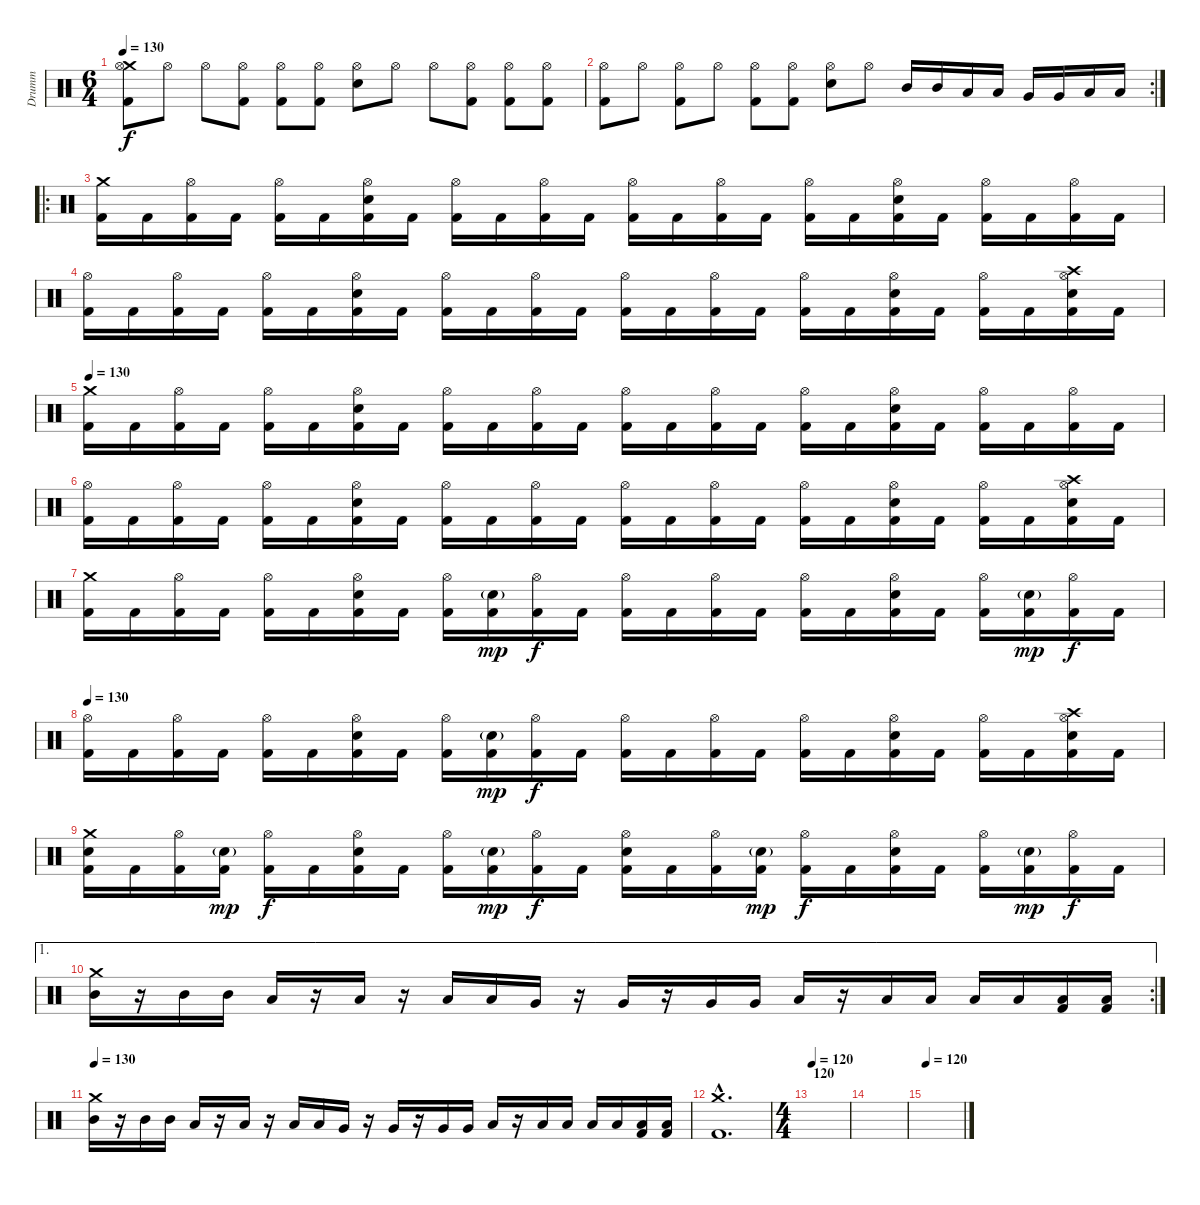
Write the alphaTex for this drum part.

\track ("Drumm" "Drumm") {instrument percussion}
\staff {score}
\articulation defaults
\ts (6 4)
\tempo 130
\clef neutral
\ks c
("Crash medium (hit)" "Hi-Hat (open)" "Kick (hit) 2").8{dy f} "Hi-Hat (open)".8 "Hi-Hat (open)".8 ("Hi-Hat (open)" "Kick (hit) 2").8 ("Hi-Hat (open)" "Kick (hit) 2").8 ("Hi-Hat (open)" "Kick (hit) 2").8 ("Hi-Hat (open)" "Electric Snare (hit)").8 "Hi-Hat (open)".8 "Hi-Hat (open)".8 ("Hi-Hat (open)" "Kick (hit) 2").8 ("Hi-Hat (open)" "Kick (hit) 2").8 ("Hi-Hat (open)" "Kick (hit) 2").8 |
\rc 2
("Hi-Hat (open)" "Kick (hit) 2").8 "Hi-Hat (open)".8 ("Hi-Hat (open)" "Kick (hit) 2").8 "Hi-Hat (open)".8 ("Hi-Hat (open)" "Kick (hit) 2").8 ("Hi-Hat (open)" "Kick (hit) 2").8 ("Hi-Hat (open)" "Electric Snare (hit)").8 "Hi-Hat (open)".8 "Mid Tom (hit)".16 "Mid Tom (hit)".16 "Low Tom (hit)".16 "Low Tom (hit)".16 "Very Low Tom (hit)".16 "Very Low Tom (hit)".16 "Low Floor Tom (hit)".16 "Low Floor Tom (hit)".16 |
\ro
("Kick (hit) 2" "Crash medium (hit)").16 "Kick (hit) 2".16 ("Kick (hit) 2" "Hi-Hat (open)").16 "Kick (hit) 2".16 ("Kick (hit) 2" "Hi-Hat (open)").16 "Kick (hit) 2".16 ("Kick (hit) 2" "Hi-Hat (open)" "Electric Snare (hit)").16 "Kick (hit) 2".16 ("Kick (hit) 2" "Hi-Hat (open)").16 "Kick (hit) 2".16 ("Kick (hit) 2" "Hi-Hat (open)").16 "Kick (hit) 2".16 ("Kick (hit) 2" "Hi-Hat (open)").16 "Kick (hit) 2".16 ("Kick (hit) 2" "Hi-Hat (open)").16 "Kick (hit) 2".16 ("Kick (hit) 2" "Hi-Hat (open)").16 "Kick (hit) 2".16 ("Kick (hit) 2" "Hi-Hat (open)" "Electric Snare (hit)").16 "Kick (hit) 2".16 ("Kick (hit) 2" "Hi-Hat (open)").16 "Kick (hit) 2".16 ("Kick (hit) 2" "Hi-Hat (open)").16 "Kick (hit) 2".16 |
("Kick (hit) 2" "Hi-Hat (open)").16 "Kick (hit) 2".16 ("Kick (hit) 2" "Hi-Hat (open)").16 "Kick (hit) 2".16 ("Kick (hit) 2" "Hi-Hat (open)").16 "Kick (hit) 2".16 ("Kick (hit) 2" "Hi-Hat (open)" "Electric Snare (hit)").16 "Kick (hit) 2".16 ("Kick (hit) 2" "Hi-Hat (open)").16 "Kick (hit) 2".16 ("Kick (hit) 2" "Hi-Hat (open)").16 "Kick (hit) 2".16 ("Kick (hit) 2" "Hi-Hat (open)").16 "Kick (hit) 2".16 ("Kick (hit) 2" "Hi-Hat (open)").16 "Kick (hit) 2".16 ("Kick (hit) 2" "Hi-Hat (open)").16 "Kick (hit) 2".16 ("Kick (hit) 2" "Hi-Hat (open)" "Electric Snare (hit)").16 "Kick (hit) 2".16 ("Kick (hit) 2" "Hi-Hat (open)").16 "Kick (hit) 2".16 ("Kick (hit) 2" "Crash high (hit)" "Hi-Hat (open)" "Electric Snare (hit)").16 "Kick (hit) 2".16 |
\tempo 130
("Kick (hit) 2" "Crash medium (hit)").16 "Kick (hit) 2".16 ("Kick (hit) 2" "Hi-Hat (open)").16 "Kick (hit) 2".16 ("Kick (hit) 2" "Hi-Hat (open)").16 "Kick (hit) 2".16 ("Kick (hit) 2" "Hi-Hat (open)" "Electric Snare (hit)").16 "Kick (hit) 2".16 ("Kick (hit) 2" "Hi-Hat (open)").16 "Kick (hit) 2".16 ("Kick (hit) 2" "Hi-Hat (open)").16 "Kick (hit) 2".16 ("Kick (hit) 2" "Hi-Hat (open)").16 "Kick (hit) 2".16 ("Kick (hit) 2" "Hi-Hat (open)").16 "Kick (hit) 2".16 ("Kick (hit) 2" "Hi-Hat (open)").16 "Kick (hit) 2".16 ("Kick (hit) 2" "Hi-Hat (open)" "Electric Snare (hit)").16 "Kick (hit) 2".16 ("Kick (hit) 2" "Hi-Hat (open)").16 "Kick (hit) 2".16 ("Kick (hit) 2" "Hi-Hat (open)").16 "Kick (hit) 2".16 |
("Kick (hit) 2" "Hi-Hat (open)").16 "Kick (hit) 2".16 ("Kick (hit) 2" "Hi-Hat (open)").16 "Kick (hit) 2".16 ("Kick (hit) 2" "Hi-Hat (open)").16 "Kick (hit) 2".16 ("Kick (hit) 2" "Hi-Hat (open)" "Electric Snare (hit)").16 "Kick (hit) 2".16 ("Kick (hit) 2" "Hi-Hat (open)").16 "Kick (hit) 2".16 ("Kick (hit) 2" "Hi-Hat (open)").16 "Kick (hit) 2".16 ("Kick (hit) 2" "Hi-Hat (open)").16 "Kick (hit) 2".16 ("Kick (hit) 2" "Hi-Hat (open)").16 "Kick (hit) 2".16 ("Kick (hit) 2" "Hi-Hat (open)").16 "Kick (hit) 2".16 ("Kick (hit) 2" "Hi-Hat (open)" "Electric Snare (hit)").16 "Kick (hit) 2".16 ("Kick (hit) 2" "Hi-Hat (open)").16 "Kick (hit) 2".16 ("Kick (hit) 2" "Crash high (hit)" "Hi-Hat (open)" "Electric Snare (hit)").16 "Kick (hit) 2".16 |
("Kick (hit) 2" "Crash medium (hit)").16 "Kick (hit) 2".16 ("Kick (hit) 2" "Hi-Hat (open)").16 "Kick (hit) 2".16 ("Kick (hit) 2" "Hi-Hat (open)").16 "Kick (hit) 2".16 ("Kick (hit) 2" "Hi-Hat (open)" "Electric Snare (hit)").16 "Kick (hit) 2".16 ("Kick (hit) 2" "Hi-Hat (open)").16 ("Kick (hit) 2" "Electric Snare (hit)"{g}).16{dy mp} ("Kick (hit) 2" "Hi-Hat (open)").16{dy f} "Kick (hit) 2".16 ("Kick (hit) 2" "Hi-Hat (open)").16 "Kick (hit) 2".16 ("Kick (hit) 2" "Hi-Hat (open)").16 "Kick (hit) 2".16 ("Kick (hit) 2" "Hi-Hat (open)").16 "Kick (hit) 2".16 ("Kick (hit) 2" "Hi-Hat (open)" "Electric Snare (hit)").16 "Kick (hit) 2".16 ("Kick (hit) 2" "Hi-Hat (open)").16 ("Kick (hit) 2" "Electric Snare (hit)"{g}).16{dy mp} ("Kick (hit) 2" "Hi-Hat (open)").16{dy f} "Kick (hit) 2".16 |
\tempo 130
("Kick (hit) 2" "Hi-Hat (open)").16 "Kick (hit) 2".16 ("Kick (hit) 2" "Hi-Hat (open)").16 "Kick (hit) 2".16 ("Kick (hit) 2" "Hi-Hat (open)").16 "Kick (hit) 2".16 ("Kick (hit) 2" "Hi-Hat (open)" "Electric Snare (hit)").16 "Kick (hit) 2".16 ("Kick (hit) 2" "Hi-Hat (open)").16 ("Kick (hit) 2" "Electric Snare (hit)"{g}).16{dy mp} ("Kick (hit) 2" "Hi-Hat (open)").16{dy f} "Kick (hit) 2".16 ("Kick (hit) 2" "Hi-Hat (open)").16 "Kick (hit) 2".16 ("Kick (hit) 2" "Hi-Hat (open)").16 "Kick (hit) 2".16 ("Kick (hit) 2" "Hi-Hat (open)").16 "Kick (hit) 2".16 ("Kick (hit) 2" "Hi-Hat (open)" "Electric Snare (hit)").16 "Kick (hit) 2".16 ("Kick (hit) 2" "Hi-Hat (open)").16 "Kick (hit) 2".16 ("Kick (hit) 2" "Crash high (hit)" "Hi-Hat (open)" "Electric Snare (hit)").16 "Kick (hit) 2".16 |
("Kick (hit) 2" "Crash medium (hit)" "Electric Snare (hit)").16 "Kick (hit) 2".16 ("Kick (hit) 2" "Hi-Hat (open)").16 ("Kick (hit) 2" "Electric Snare (hit)"{g}).16{dy mp} ("Kick (hit) 2" "Hi-Hat (open)").16{dy f} "Kick (hit) 2".16 ("Kick (hit) 2" "Hi-Hat (open)" "Electric Snare (hit)").16 "Kick (hit) 2".16 ("Kick (hit) 2" "Hi-Hat (open)").16 ("Kick (hit) 2" "Electric Snare (hit)"{g}).16{dy mp} ("Kick (hit) 2" "Hi-Hat (open)").16{dy f} "Kick (hit) 2".16 ("Kick (hit) 2" "Hi-Hat (open)" "Electric Snare (hit)").16 "Kick (hit) 2".16 ("Kick (hit) 2" "Hi-Hat (open)").16 ("Kick (hit) 2" "Electric Snare (hit)"{g}).16{dy mp} ("Kick (hit) 2" "Hi-Hat (open)").16{dy f} "Kick (hit) 2".16 ("Kick (hit) 2" "Hi-Hat (open)" "Electric Snare (hit)").16 "Kick (hit) 2".16 ("Kick (hit) 2" "Hi-Hat (open)").16 ("Kick (hit) 2" "Electric Snare (hit)"{g}).16{dy mp} ("Kick (hit) 2" "Hi-Hat (open)").16{dy f} "Kick (hit) 2".16 |
\ae 1
\rc 2
("Mid Tom (hit)" "Crash medium (hit)").16 r.16 "Mid Tom (hit)".16 "Mid Tom (hit)".16 "Low Tom (hit)".16 r.16 "Low Tom (hit)".16 r.16 "Low Tom (hit)".16 "Low Tom (hit)".16 "Very Low Tom (hit)".16 r.16 "Very Low Tom (hit)".16 r.16 "Very Low Tom (hit)".16 "Very Low Tom (hit)".16 "Low Floor Tom (hit)".16 r.16 "Low Floor Tom (hit)".16 "Low Floor Tom (hit)".16 "Low Floor Tom (hit)".16 "Low Floor Tom (hit)".16 ("Low Floor Tom (hit)" "Kick (hit) 2").16 ("Low Floor Tom (hit)" "Kick (hit) 2").16 |
\tempo 130
("Mid Tom (hit)" "Crash medium (hit)").16 r.16 "Mid Tom (hit)".16 "Mid Tom (hit)".16 "Low Tom (hit)".16 r.16 "Low Tom (hit)".16 r.16 "Low Tom (hit)".16 "Low Tom (hit)".16 "Very Low Tom (hit)".16 r.16 "Very Low Tom (hit)".16 r.16 "Very Low Tom (hit)".16 "Very Low Tom (hit)".16 "Low Floor Tom (hit)".16 r.16 "Low Floor Tom (hit)".16 "Low Floor Tom (hit)".16 "Low Floor Tom (hit)".16 "Low Floor Tom (hit)".16 ("Low Floor Tom (hit)" "Kick (hit) 2").16 ("Low Floor Tom (hit)" "Kick (hit) 2").16 |
("Crash medium (hit)"{hac} "Kick (hit) 2"{hac}).1{d} |
\ts (4 4)
\section ("" "120")
\tempo 120
|
|
\tempo 120
